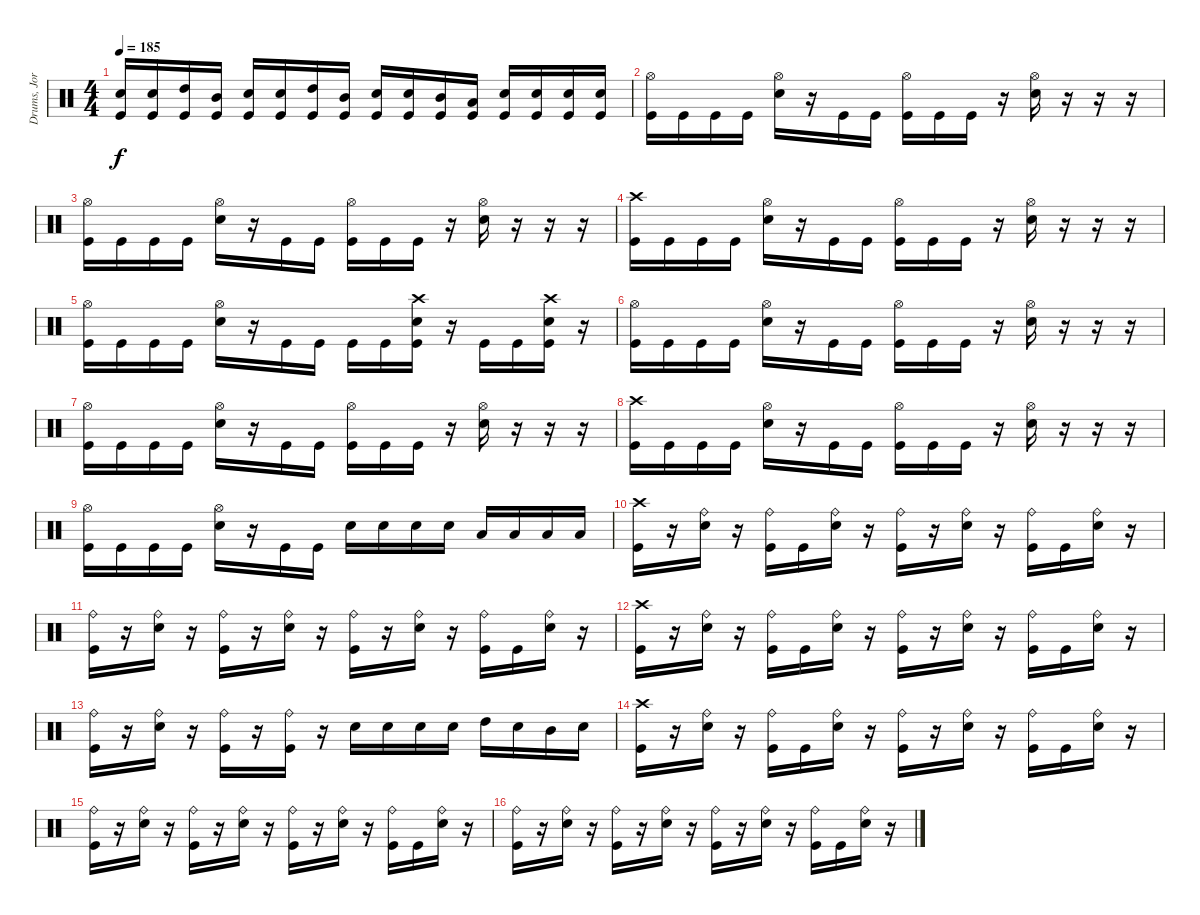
\track ("Drums, Jorye Sáez" "Drums, Jor") {instrument percussion}
\staff {score}
\articulation defaults
\ts (4 4)
\tempo 185
\clef neutral
\ks c
("Electric Snare (hit)" "Kick (hit)").16{dy f} ("Electric Snare (hit)" "Kick (hit)").16 ("High Tom (hit)" "Kick (hit)").16 ("Mid Tom (hit)" "Kick (hit)").16 ("Electric Snare (hit)" "Kick (hit)").16 ("Electric Snare (hit)" "Kick (hit)").16 ("High Tom (hit)" "Kick (hit)").16 ("Mid Tom (hit)" "Kick (hit)").16 ("Electric Snare (hit)" "Kick (hit)").16 ("Electric Snare (hit)" "Kick (hit)").16 ("Mid Tom (hit)" "Kick (hit)").16 ("Low Tom (hit)" "Kick (hit)").16 ("Electric Snare (hit)" "Kick (hit)").16 ("Electric Snare (hit)" "Kick (hit)").16 ("Electric Snare (hit)" "Kick (hit)").16 ("Electric Snare (hit)" "Kick (hit)").16 |
("Kick (hit)" "Hi-Hat (open)").16 "Kick (hit)".16 "Kick (hit)".16 "Kick (hit)".16 ("Electric Snare (hit)" "Hi-Hat (open)").16 r.16 "Kick (hit)".16 "Kick (hit)".16 ("Kick (hit)" "Hi-Hat (open)").16 "Kick (hit)".16 "Kick (hit)".16 r.16 ("Electric Snare (hit)" "Hi-Hat (open)").16 r.16 r.16 r.16 |
("Kick (hit)" "Hi-Hat (open)").16 "Kick (hit)".16 "Kick (hit)".16 "Kick (hit)".16 ("Electric Snare (hit)" "Hi-Hat (open)").16 r.16 "Kick (hit)".16 "Kick (hit)".16 ("Kick (hit)" "Hi-Hat (open)").16 "Kick (hit)".16 "Kick (hit)".16 r.16 ("Electric Snare (hit)" "Hi-Hat (open)").16 r.16 r.16 r.16 |
("Kick (hit)" "Crash high (hit)").16 "Kick (hit)".16 "Kick (hit)".16 "Kick (hit)".16 ("Electric Snare (hit)" "Hi-Hat (open)").16 r.16 "Kick (hit)".16 "Kick (hit)".16 ("Kick (hit)" "Hi-Hat (open)").16 "Kick (hit)".16 "Kick (hit)".16 r.16 ("Electric Snare (hit)" "Hi-Hat (open)").16 r.16 r.16 r.16 |
("Kick (hit)" "Hi-Hat (open)").16 "Kick (hit)".16 "Kick (hit)".16 "Kick (hit)".16 ("Electric Snare (hit)" "Hi-Hat (open)").16 r.16 "Kick (hit)".16 "Kick (hit)".16 "Kick (hit)".16 "Kick (hit)".16 ("Kick (hit)" "Crash high (hit)" "Electric Snare (hit)").16 r.16 "Kick (hit)".16 "Kick (hit)".16 ("Electric Snare (hit)" "Crash high (hit)" "Kick (hit)").16 r.16 |
("Kick (hit)" "Hi-Hat (open)").16 "Kick (hit)".16 "Kick (hit)".16 "Kick (hit)".16 ("Electric Snare (hit)" "Hi-Hat (open)").16 r.16 "Kick (hit)".16 "Kick (hit)".16 ("Kick (hit)" "Hi-Hat (open)").16 "Kick (hit)".16 "Kick (hit)".16 r.16 ("Electric Snare (hit)" "Hi-Hat (open)").16 r.16 r.16 r.16 |
("Kick (hit)" "Hi-Hat (open)").16 "Kick (hit)".16 "Kick (hit)".16 "Kick (hit)".16 ("Electric Snare (hit)" "Hi-Hat (open)").16 r.16 "Kick (hit)".16 "Kick (hit)".16 ("Kick (hit)" "Hi-Hat (open)").16 "Kick (hit)".16 "Kick (hit)".16 r.16 ("Electric Snare (hit)" "Hi-Hat (open)").16 r.16 r.16 r.16 |
("Kick (hit)" "Crash high (hit)").16 "Kick (hit)".16 "Kick (hit)".16 "Kick (hit)".16 ("Electric Snare (hit)" "Hi-Hat (open)").16 r.16 "Kick (hit)".16 "Kick (hit)".16 ("Kick (hit)" "Hi-Hat (open)").16 "Kick (hit)".16 "Kick (hit)".16 r.16 ("Electric Snare (hit)" "Hi-Hat (open)").16 r.16 r.16 r.16 |
("Kick (hit)" "Hi-Hat (open)").16 "Kick (hit)".16 "Kick (hit)".16 "Kick (hit)".16 ("Electric Snare (hit)" "Hi-Hat (open)").16 r.16 "Kick (hit)".16 "Kick (hit)".16 "Electric Snare (hit)".16 "Electric Snare (hit)".16 "Electric Snare (hit)".16 "Electric Snare (hit)".16 "Low Tom (hit)".16 "Low Tom (hit)".16 "Low Tom (hit)".16 "Low Tom (hit)".16 |
("Crash high (hit)" "Kick (hit)").16 r.16 ("Ride (bell)" "Electric Snare (hit)").16 r.16 ("Ride (bell)" "Kick (hit)").16 "Kick (hit)".16 ("Ride (bell)" "Electric Snare (hit)").16 r.16 ("Ride (bell)" "Kick (hit)").16 r.16 ("Ride (bell)" "Electric Snare (hit)").16 r.16 ("Ride (bell)" "Kick (hit)").16 "Kick (hit)".16 ("Ride (bell)" "Electric Snare (hit)").16 r.16 |
("Ride (bell)" "Kick (hit)").16 r.16 ("Ride (bell)" "Electric Snare (hit)").16 r.16 ("Ride (bell)" "Kick (hit)").16 r.16 ("Ride (bell)" "Electric Snare (hit)").16 r.16 ("Ride (bell)" "Kick (hit)").16 r.16 ("Ride (bell)" "Electric Snare (hit)").16 r.16 ("Ride (bell)" "Kick (hit)").16 "Kick (hit)".16 ("Ride (bell)" "Electric Snare (hit)").16 r.16 |
("Crash high (hit)" "Kick (hit)").16 r.16 ("Ride (bell)" "Electric Snare (hit)").16 r.16 ("Ride (bell)" "Kick (hit)").16 "Kick (hit)".16 ("Ride (bell)" "Electric Snare (hit)").16 r.16 ("Ride (bell)" "Kick (hit)").16 r.16 ("Ride (bell)" "Electric Snare (hit)").16 r.16 ("Ride (bell)" "Kick (hit)").16 "Kick (hit)".16 ("Ride (bell)" "Electric Snare (hit)").16 r.16 |
("Ride (bell)" "Kick (hit)").16 r.16 ("Ride (bell)" "Electric Snare (hit)").16 r.16 ("Ride (bell)" "Kick (hit)").16 r.16 ("Ride (bell)" "Kick (hit)").16 r.16 "Electric Snare (hit)".16 "Electric Snare (hit)".16 "Electric Snare (hit)".16 "Electric Snare (hit)".16 "High Tom (hit)".16 "Electric Snare (hit)".16 "Mid Tom (hit)".16 "Electric Snare (hit)".16 |
("Crash high (hit)" "Kick (hit)").16 r.16 ("Ride (bell)" "Electric Snare (hit)").16 r.16 ("Ride (bell)" "Kick (hit)").16 "Kick (hit)".16 ("Ride (bell)" "Electric Snare (hit)").16 r.16 ("Ride (bell)" "Kick (hit)").16 r.16 ("Ride (bell)" "Electric Snare (hit)").16 r.16 ("Ride (bell)" "Kick (hit)").16 "Kick (hit)".16 ("Ride (bell)" "Electric Snare (hit)").16 r.16 |
("Ride (bell)" "Kick (hit)").16 r.16 ("Ride (bell)" "Electric Snare (hit)").16 r.16 ("Ride (bell)" "Kick (hit)").16 r.16 ("Ride (bell)" "Electric Snare (hit)").16 r.16 ("Ride (bell)" "Kick (hit)").16 r.16 ("Ride (bell)" "Electric Snare (hit)").16 r.16 ("Ride (bell)" "Kick (hit)").16 "Kick (hit)".16 ("Ride (bell)" "Electric Snare (hit)").16 r.16 |
("Ride (bell)" "Kick (hit)").16 r.16 ("Ride (bell)" "Electric Snare (hit)").16 r.16 ("Ride (bell)" "Kick (hit)").16 r.16 ("Ride (bell)" "Electric Snare (hit)").16 r.16 ("Ride (bell)" "Kick (hit)").16 r.16 ("Ride (bell)" "Electric Snare (hit)").16 r.16 ("Ride (bell)" "Kick (hit)").16 "Kick (hit)".16 ("Ride (bell)" "Electric Snare (hit)").16 r.16
